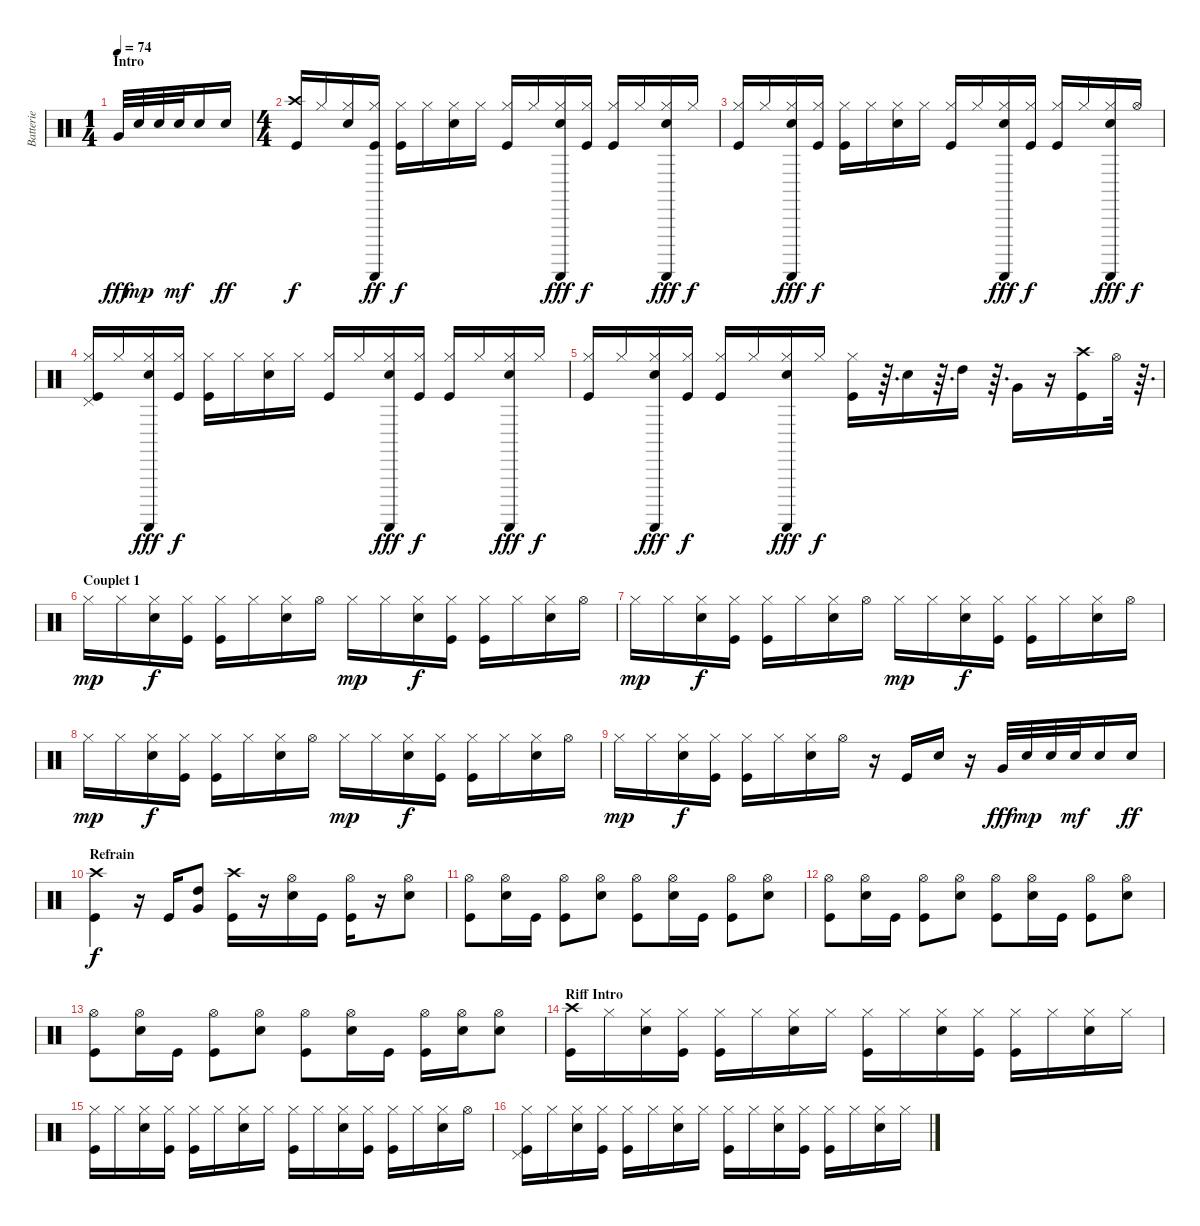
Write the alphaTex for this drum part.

\track ("Batterie" "Batterie") {instrument percussion}
\staff {score}
\articulation defaults
\ts (1 4)
\section ("" "Intro")
\tempo 74
\clef neutral
\ks c "Very Low Tom (hit)".32{dy fff} "Snare (hit) 2".32{dy mp} "Snare (hit) 2".32 "Snare (hit) 2".32{dy mf} "Snare (hit) 2".16 "Snare (hit) 2".16{dy ff}
|
\ts (4 4)
("Crash high (hit)" "Kick (hit)").16{dy f} "Hi-Hat (closed)".16 ("Hi-Hat (closed)" "Snare (hit) 2").16 ("Guiro (scrap-return)" "Hi-Hat (closed)" "Kick (hit)").16{dy ff} ("Hi-Hat (closed)" "Kick (hit)").16{dy f} "Hi-Hat (closed)".16 ("Hi-Hat (closed)" "Snare (hit) 2").16 "Hi-Hat (closed)".16 ("Hi-Hat (closed)" "Kick (hit)").16 "Hi-Hat (closed)".16 ("Guiro (scrap-return)" "Hi-Hat (closed)" "Snare (hit) 2").16{dy fff} ("Hi-Hat (closed)" "Kick (hit)").16{dy f} ("Hi-Hat (closed)" "Kick (hit)").16 "Hi-Hat (closed)".16 ("Guiro (scrap-return)" "Hi-Hat (closed)" "Snare (hit) 2").16{dy fff} "Hi-Hat (closed)".16{dy f} |
("Hi-Hat (closed)" "Kick (hit)").16 "Hi-Hat (closed)".16 ("Guiro (scrap-return)" "Hi-Hat (closed)" "Snare (hit) 2").16{dy fff} ("Hi-Hat (closed)" "Kick (hit)").16{dy f} ("Hi-Hat (closed)" "Kick (hit)").16 "Hi-Hat (closed)".16 ("Hi-Hat (closed)" "Snare (hit) 2").16 "Hi-Hat (closed)".16 ("Hi-Hat (closed)" "Kick (hit)").16 "Hi-Hat (closed)".16 ("Guiro (scrap-return)" "Hi-Hat (closed)" "Snare (hit) 2").16{dy fff} ("Hi-Hat (closed)" "Kick (hit)").16{dy f} ("Hi-Hat (closed)" "Kick (hit)").16 "Hi-Hat (closed)".16 ("Guiro (scrap-return)" "Hi-Hat (closed)" "Snare (hit) 2").16{dy fff} "Hi-Hat (open)".16{dy f} |
("Hi-Hat (closed)" "Pedal Hi-Hat (hit)" "Kick (hit)").16 "Hi-Hat (closed)".16 ("Guiro (scrap-return)" "Hi-Hat (closed)" "Snare (hit) 2").16{dy fff} ("Hi-Hat (closed)" "Kick (hit)").16{dy f} ("Hi-Hat (closed)" "Kick (hit)").16 "Hi-Hat (closed)".16 ("Hi-Hat (closed)" "Snare (hit) 2").16 "Hi-Hat (closed)".16 ("Hi-Hat (closed)" "Kick (hit)").16 "Hi-Hat (closed)".16 ("Guiro (scrap-return)" "Hi-Hat (closed)" "Snare (hit) 2").16{dy fff} ("Hi-Hat (closed)" "Kick (hit)").16{dy f} ("Hi-Hat (closed)" "Kick (hit)").16 "Hi-Hat (closed)".16 ("Guiro (scrap-return)" "Hi-Hat (closed)" "Snare (hit) 2").16{dy fff} "Hi-Hat (closed)".16{dy f} |
("Hi-Hat (closed)" "Kick (hit)").16 "Hi-Hat (closed)".16 ("Guiro (scrap-return)" "Hi-Hat (closed)" "Snare (hit) 2").16{dy fff} ("Hi-Hat (closed)" "Kick (hit)").16{dy f} ("Hi-Hat (closed)" "Kick (hit)").16 "Hi-Hat (closed)".16 ("Guiro (scrap-return)" "Hi-Hat (closed)" "Snare (hit) 2").16{dy fff} "Hi-Hat (closed)".16{dy f} ("Hi-Hat (closed)" "Kick (hit)").16 r.64{d} "Snare (hit) 2".16 r.64{d} "High Tom (hit)".16 r.64{d} "Very Low Tom (hit)".16 r.16 ("Crash high (hit)" "Kick (hit)").16 "Hi-Hat (open)".32 r.64{d} |
\section ("" "Couplet 1")
"Hi-Hat (closed)".16{dy mp} "Hi-Hat (closed)".16 ("Hi-Hat (closed)" "Snare (hit) 2").16{dy f} ("Hi-Hat (closed)" "Kick (hit)").16 ("Hi-Hat (closed)" "Kick (hit)").16 "Hi-Hat (closed)".16 ("Hi-Hat (closed)" "Snare (hit) 2").16 "Hi-Hat (open)".16 "Hi-Hat (closed)".16{dy mp} "Hi-Hat (closed)".16 ("Hi-Hat (closed)" "Snare (hit) 2").16{dy f} ("Hi-Hat (closed)" "Kick (hit)").16 ("Hi-Hat (closed)" "Kick (hit)").16 "Hi-Hat (closed)".16 ("Hi-Hat (closed)" "Snare (hit) 2").16 "Hi-Hat (open)".16 |
"Hi-Hat (closed)".16{dy mp} "Hi-Hat (closed)".16 ("Hi-Hat (closed)" "Snare (hit) 2").16{dy f} ("Hi-Hat (closed)" "Kick (hit)").16 ("Hi-Hat (closed)" "Kick (hit)").16 "Hi-Hat (closed)".16 ("Hi-Hat (closed)" "Snare (hit) 2").16 "Hi-Hat (open)".16 "Hi-Hat (closed)".16{dy mp} "Hi-Hat (closed)".16 ("Hi-Hat (closed)" "Snare (hit) 2").16{dy f} ("Hi-Hat (closed)" "Kick (hit)").16 ("Hi-Hat (closed)" "Kick (hit)").16 "Hi-Hat (closed)".16 ("Hi-Hat (closed)" "Snare (hit) 2").16 "Hi-Hat (open)".16 |
"Hi-Hat (closed)".16{dy mp} "Hi-Hat (closed)".16 ("Hi-Hat (closed)" "Snare (hit) 2").16{dy f} ("Hi-Hat (closed)" "Kick (hit)").16 ("Hi-Hat (closed)" "Kick (hit)").16 "Hi-Hat (closed)".16 ("Hi-Hat (closed)" "Snare (hit) 2").16 "Hi-Hat (open)".16 "Hi-Hat (closed)".16{dy mp} "Hi-Hat (closed)".16 ("Hi-Hat (closed)" "Snare (hit) 2").16{dy f} ("Hi-Hat (closed)" "Kick (hit)").16 ("Hi-Hat (closed)" "Kick (hit)").16 "Hi-Hat (closed)".16 ("Hi-Hat (closed)" "Snare (hit) 2").16 "Hi-Hat (open)".16 |
"Hi-Hat (closed)".16{dy mp} "Hi-Hat (closed)".16 ("Hi-Hat (closed)" "Snare (hit) 2").16{dy f} ("Hi-Hat (closed)" "Kick (hit)").16 ("Hi-Hat (closed)" "Kick (hit)").16 "Hi-Hat (closed)".16 ("Hi-Hat (closed)" "Snare (hit) 2").16 "Hi-Hat (open)".16 r.16 "Kick (hit)".16 "Snare (hit) 2".16 r.16 "Very Low Tom (hit)".32{dy fff} "Snare (hit) 2".32{dy mp} "Snare (hit) 2".32 "Snare (hit) 2".32{dy mf} "Snare (hit) 2".16 "Snare (hit) 2".16{dy ff} |
\section ("" "Refrain")
("Crash high (hit)" "Kick (hit)").4{dy f} r.16 "Kick (hit)".16 ("High Tom (hit)" "Very Low Tom (hit)").8 ("Crash high (hit)" "Kick (hit)").16 r.16 ("Hi-Hat (open)" "Snare (hit) 2").16 "Kick (hit)".16 ("Hi-Hat (open)" "Kick (hit)").16 r.16 ("Hi-Hat (open)" "Snare (hit) 2").8 |
("Hi-Hat (open)" "Kick (hit)").8 ("Hi-Hat (open)" "Snare (hit) 2").16 "Kick (hit)".16 ("Hi-Hat (open)" "Kick (hit)").8 ("Hi-Hat (open)" "Snare (hit) 2").8 ("Hi-Hat (open)" "Kick (hit)").8 ("Hi-Hat (open)" "Snare (hit) 2").16 "Kick (hit)".16 ("Hi-Hat (open)" "Kick (hit)").8 ("Hi-Hat (open)" "Snare (hit) 2").8 |
("Hi-Hat (open)" "Kick (hit)").8 ("Hi-Hat (open)" "Snare (hit) 2").16 "Kick (hit)".16 ("Hi-Hat (open)" "Kick (hit)").8 ("Hi-Hat (open)" "Snare (hit) 2").8 ("Hi-Hat (open)" "Kick (hit)").8 ("Hi-Hat (open)" "Snare (hit) 2").16 "Kick (hit)".16 ("Hi-Hat (open)" "Kick (hit)").8 ("Hi-Hat (open)" "Snare (hit) 2").8 |
("Hi-Hat (open)" "Kick (hit)").8 ("Hi-Hat (open)" "Snare (hit) 2").16 "Kick (hit)".16 ("Hi-Hat (open)" "Kick (hit)").8 ("Hi-Hat (open)" "Snare (hit) 2").8 ("Hi-Hat (open)" "Kick (hit)").8 ("Hi-Hat (open)" "Snare (hit) 2").16 "Kick (hit)".16 ("Hi-Hat (open)" "Kick (hit)").16 ("Hi-Hat (open)" "Snare (hit) 2").16 ("Hi-Hat (open)" "Snare (hit) 2").8 |
\section ("" "Riff Intro")
("Crash high (hit)" "Kick (hit)").16 "Hi-Hat (closed)".16 ("Hi-Hat (closed)" "Snare (hit) 2").16 ("Hi-Hat (closed)" "Kick (hit)").16 ("Hi-Hat (closed)" "Kick (hit)").16 "Hi-Hat (closed)".16 ("Hi-Hat (closed)" "Snare (hit) 2").16 "Hi-Hat (closed)".16 ("Hi-Hat (closed)" "Kick (hit)").16 "Hi-Hat (closed)".16 ("Hi-Hat (closed)" "Snare (hit) 2").16 ("Hi-Hat (closed)" "Kick (hit)").16 ("Hi-Hat (closed)" "Kick (hit)").16 "Hi-Hat (closed)".16 ("Hi-Hat (closed)" "Snare (hit) 2").16 "Hi-Hat (closed)".16 |
("Hi-Hat (closed)" "Kick (hit)").16 "Hi-Hat (closed)".16 ("Hi-Hat (closed)" "Snare (hit) 2").16 ("Hi-Hat (closed)" "Kick (hit)").16 ("Hi-Hat (closed)" "Kick (hit)").16 "Hi-Hat (closed)".16 ("Hi-Hat (closed)" "Snare (hit) 2").16 "Hi-Hat (closed)".16 ("Hi-Hat (closed)" "Kick (hit)").16 "Hi-Hat (closed)".16 ("Hi-Hat (closed)" "Snare (hit) 2").16 ("Hi-Hat (closed)" "Kick (hit)").16 ("Hi-Hat (closed)" "Kick (hit)").16 "Hi-Hat (closed)".16 ("Hi-Hat (closed)" "Snare (hit) 2").16 "Hi-Hat (open)".16 |
("Hi-Hat (closed)" "Pedal Hi-Hat (hit)" "Kick (hit)").16 "Hi-Hat (closed)".16 ("Hi-Hat (closed)" "Snare (hit) 2").16 ("Hi-Hat (closed)" "Kick (hit)").16 ("Hi-Hat (closed)" "Kick (hit)").16 "Hi-Hat (closed)".16 ("Hi-Hat (closed)" "Snare (hit) 2").16 "Hi-Hat (closed)".16 ("Hi-Hat (closed)" "Kick (hit)").16 "Hi-Hat (closed)".16 ("Hi-Hat (closed)" "Snare (hit) 2").16 ("Hi-Hat (closed)" "Kick (hit)").16 ("Hi-Hat (closed)" "Kick (hit)").16 "Hi-Hat (closed)".16 ("Hi-Hat (closed)" "Snare (hit) 2").16 "Hi-Hat (closed)".16
